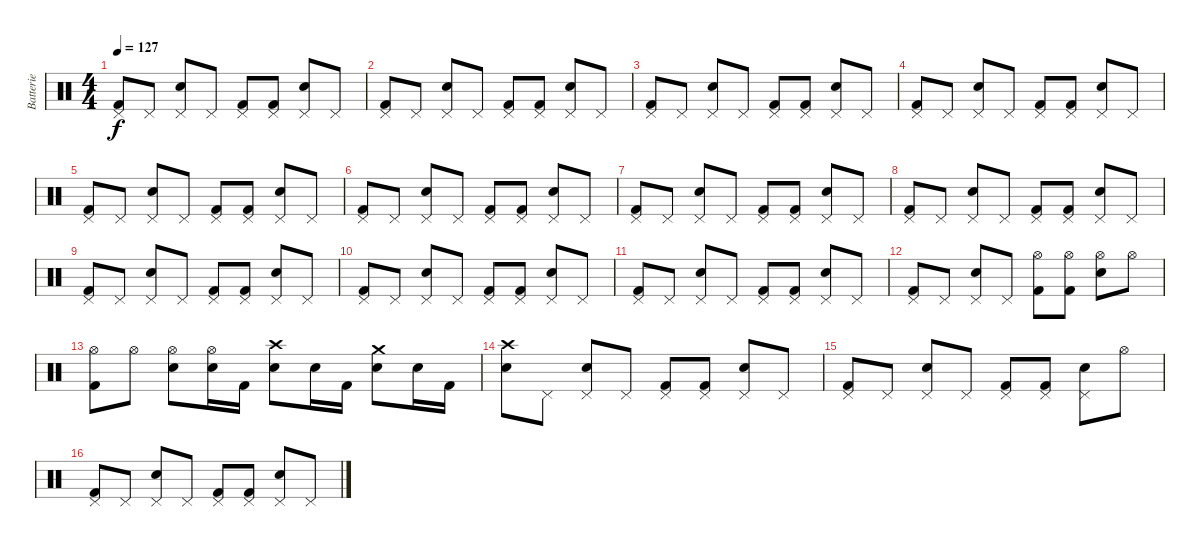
\track ("Batterie" "Batterie") {instrument percussion}
\staff {score}
\articulation defaults
\ts (4 4)
\tempo 127
\clef neutral
\ks c
("Pedal Hi-Hat (hit)" "Kick (hit) 2").8{dy f} "Pedal Hi-Hat (hit)".8 ("Pedal Hi-Hat (hit)" "Electric Snare (hit)").8 "Pedal Hi-Hat (hit)".8 ("Pedal Hi-Hat (hit)" "Kick (hit) 2").8 ("Pedal Hi-Hat (hit)" "Kick (hit) 2").8 ("Pedal Hi-Hat (hit)" "Electric Snare (hit)").8 "Pedal Hi-Hat (hit)".8 |
("Pedal Hi-Hat (hit)" "Kick (hit) 2").8 "Pedal Hi-Hat (hit)".8 ("Pedal Hi-Hat (hit)" "Electric Snare (hit)").8 "Pedal Hi-Hat (hit)".8 ("Pedal Hi-Hat (hit)" "Kick (hit) 2").8 ("Pedal Hi-Hat (hit)" "Kick (hit) 2").8 ("Pedal Hi-Hat (hit)" "Electric Snare (hit)").8 "Pedal Hi-Hat (hit)".8 |
("Pedal Hi-Hat (hit)" "Kick (hit) 2").8 "Pedal Hi-Hat (hit)".8 ("Pedal Hi-Hat (hit)" "Electric Snare (hit)").8 "Pedal Hi-Hat (hit)".8 ("Pedal Hi-Hat (hit)" "Kick (hit) 2").8 ("Pedal Hi-Hat (hit)" "Kick (hit) 2").8 ("Pedal Hi-Hat (hit)" "Electric Snare (hit)").8 "Pedal Hi-Hat (hit)".8 |
("Pedal Hi-Hat (hit)" "Kick (hit) 2").8 "Pedal Hi-Hat (hit)".8 ("Pedal Hi-Hat (hit)" "Electric Snare (hit)").8 "Pedal Hi-Hat (hit)".8 ("Pedal Hi-Hat (hit)" "Kick (hit) 2").8 ("Pedal Hi-Hat (hit)" "Kick (hit) 2").8 ("Pedal Hi-Hat (hit)" "Electric Snare (hit)").8 "Pedal Hi-Hat (hit)".8 |
("Pedal Hi-Hat (hit)" "Kick (hit) 2").8 "Pedal Hi-Hat (hit)".8 ("Pedal Hi-Hat (hit)" "Electric Snare (hit)").8 "Pedal Hi-Hat (hit)".8 ("Pedal Hi-Hat (hit)" "Kick (hit) 2").8 ("Pedal Hi-Hat (hit)" "Kick (hit) 2").8 ("Pedal Hi-Hat (hit)" "Electric Snare (hit)").8 "Pedal Hi-Hat (hit)".8 |
("Pedal Hi-Hat (hit)" "Kick (hit) 2").8 "Pedal Hi-Hat (hit)".8 ("Pedal Hi-Hat (hit)" "Electric Snare (hit)").8 "Pedal Hi-Hat (hit)".8 ("Pedal Hi-Hat (hit)" "Kick (hit) 2").8 ("Pedal Hi-Hat (hit)" "Kick (hit) 2").8 ("Pedal Hi-Hat (hit)" "Electric Snare (hit)").8 "Pedal Hi-Hat (hit)".8 |
("Pedal Hi-Hat (hit)" "Kick (hit) 2").8 "Pedal Hi-Hat (hit)".8 ("Pedal Hi-Hat (hit)" "Electric Snare (hit)").8 "Pedal Hi-Hat (hit)".8 ("Pedal Hi-Hat (hit)" "Kick (hit) 2").8 ("Pedal Hi-Hat (hit)" "Kick (hit) 2").8 ("Pedal Hi-Hat (hit)" "Electric Snare (hit)").8 "Pedal Hi-Hat (hit)".8 |
("Pedal Hi-Hat (hit)" "Kick (hit) 2").8 "Pedal Hi-Hat (hit)".8 ("Pedal Hi-Hat (hit)" "Electric Snare (hit)").8 "Pedal Hi-Hat (hit)".8 ("Pedal Hi-Hat (hit)" "Kick (hit) 2").8 ("Pedal Hi-Hat (hit)" "Kick (hit) 2").8 ("Pedal Hi-Hat (hit)" "Electric Snare (hit)").8 "Pedal Hi-Hat (hit)".8 |
("Pedal Hi-Hat (hit)" "Kick (hit) 2").8 "Pedal Hi-Hat (hit)".8 ("Pedal Hi-Hat (hit)" "Electric Snare (hit)").8 "Pedal Hi-Hat (hit)".8 ("Pedal Hi-Hat (hit)" "Kick (hit) 2").8 ("Pedal Hi-Hat (hit)" "Kick (hit) 2").8 ("Pedal Hi-Hat (hit)" "Electric Snare (hit)").8 "Pedal Hi-Hat (hit)".8 |
("Pedal Hi-Hat (hit)" "Kick (hit) 2").8 "Pedal Hi-Hat (hit)".8 ("Pedal Hi-Hat (hit)" "Electric Snare (hit)").8 "Pedal Hi-Hat (hit)".8 ("Pedal Hi-Hat (hit)" "Kick (hit) 2").8 ("Pedal Hi-Hat (hit)" "Kick (hit) 2").8 ("Pedal Hi-Hat (hit)" "Electric Snare (hit)").8 "Pedal Hi-Hat (hit)".8 |
("Pedal Hi-Hat (hit)" "Kick (hit) 2").8 "Pedal Hi-Hat (hit)".8 ("Pedal Hi-Hat (hit)" "Electric Snare (hit)").8 "Pedal Hi-Hat (hit)".8 ("Pedal Hi-Hat (hit)" "Kick (hit) 2").8 ("Pedal Hi-Hat (hit)" "Kick (hit) 2").8 ("Pedal Hi-Hat (hit)" "Electric Snare (hit)").8 "Pedal Hi-Hat (hit)".8 |
("Pedal Hi-Hat (hit)" "Kick (hit) 2").8 "Pedal Hi-Hat (hit)".8 ("Pedal Hi-Hat (hit)" "Electric Snare (hit)").8 "Pedal Hi-Hat (hit)".8 ("Hi-Hat (open)" "Kick (hit) 2").8 ("Hi-Hat (open)" "Kick (hit) 2").8 ("Hi-Hat (open)" "Electric Snare (hit)").8 "Hi-Hat (open)".8 |
("Hi-Hat (open)" "Kick (hit) 2").8 "Hi-Hat (open)".8 ("Hi-Hat (open)" "Electric Snare (hit)").8 ("Hi-Hat (open)" "Electric Snare (hit)").16 "Kick (hit) 2".16 ("Electric Snare (hit)" "Crash high (hit)").8 "Electric Snare (hit)".16 "Kick (hit) 2".16 ("Electric Snare (hit)" "Crash medium (hit)").8 "Electric Snare (hit)".16 "Kick (hit) 2".16 |
("Electric Snare (hit)" "Crash high (hit)").8 "Pedal Hi-Hat (hit)".8 ("Pedal Hi-Hat (hit)" "Electric Snare (hit)").8 "Pedal Hi-Hat (hit)".8 ("Pedal Hi-Hat (hit)" "Kick (hit) 2").8 ("Pedal Hi-Hat (hit)" "Kick (hit) 2").8 ("Pedal Hi-Hat (hit)" "Electric Snare (hit)").8 "Pedal Hi-Hat (hit)".8 |
("Pedal Hi-Hat (hit)" "Kick (hit) 2").8 "Pedal Hi-Hat (hit)".8 ("Pedal Hi-Hat (hit)" "Electric Snare (hit)").8 "Pedal Hi-Hat (hit)".8 ("Pedal Hi-Hat (hit)" "Kick (hit) 2").8 ("Pedal Hi-Hat (hit)" "Kick (hit) 2").8 ("Pedal Hi-Hat (hit)" "Electric Snare (hit)").8 "Hi-Hat (open)".8 |
("Pedal Hi-Hat (hit)" "Kick (hit) 2").8 "Pedal Hi-Hat (hit)".8 ("Pedal Hi-Hat (hit)" "Electric Snare (hit)").8 "Pedal Hi-Hat (hit)".8 ("Pedal Hi-Hat (hit)" "Kick (hit) 2").8 ("Pedal Hi-Hat (hit)" "Kick (hit) 2").8 ("Pedal Hi-Hat (hit)" "Electric Snare (hit)").8 "Pedal Hi-Hat (hit)".8
